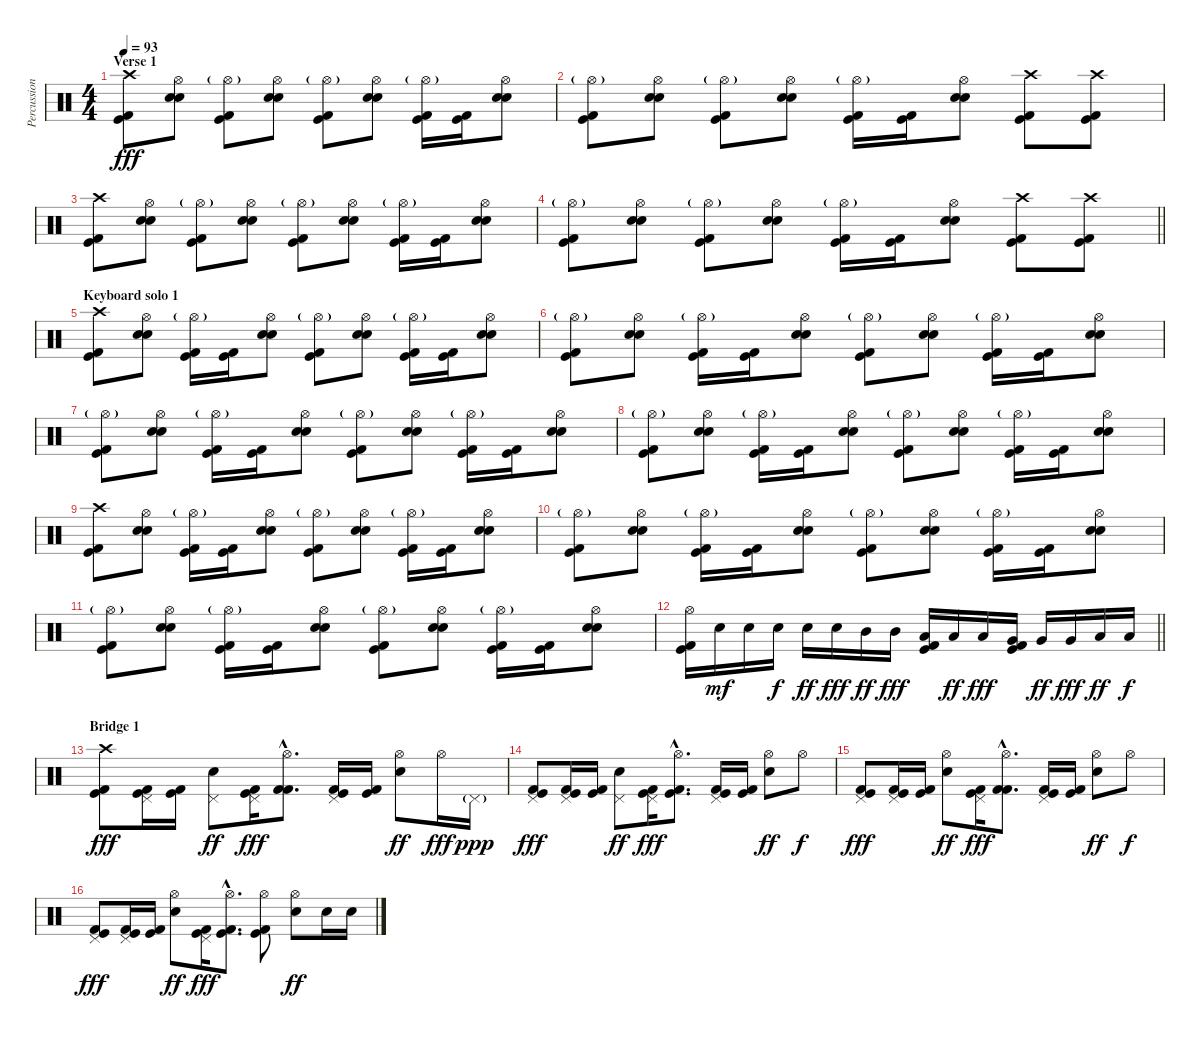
\track ("Percussion" "Percussion") {instrument percussion}
\staff {score}
\articulation defaults
\ts (4 4)
\section ("" "Verse 1")
\tempo 93
\clef neutral
\ks c
("Crash high (hit)" "Kick (hit)" "Kick (hit) 2").8{dy fff} ("Hi-Hat (open)" "Electric Snare (hit)" "Snare (hit) 2").8 ("Hi-Hat (open)"{g} "Kick (hit)" "Kick (hit) 2").8 ("Hi-Hat (open)" "Electric Snare (hit)" "Snare (hit) 2").8 ("Hi-Hat (open)"{g} "Kick (hit)" "Kick (hit) 2").8 ("Hi-Hat (open)" "Electric Snare (hit)" "Snare (hit) 2").8 ("Hi-Hat (open)"{g} "Kick (hit)" "Kick (hit) 2").16 ("Kick (hit)" "Kick (hit) 2").16 ("Hi-Hat (open)" "Electric Snare (hit)" "Snare (hit) 2").8 |
("Hi-Hat (open)"{g} "Kick (hit)" "Kick (hit) 2").8 ("Hi-Hat (open)" "Electric Snare (hit)" "Snare (hit) 2").8 ("Hi-Hat (open)"{g} "Kick (hit)" "Kick (hit) 2").8 ("Hi-Hat (open)" "Electric Snare (hit)" "Snare (hit) 2").8 ("Hi-Hat (open)"{g} "Kick (hit)" "Kick (hit) 2").16 ("Kick (hit)" "Kick (hit) 2").16 ("Hi-Hat (open)" "Electric Snare (hit)" "Snare (hit) 2").8 ("Crash high (hit)" "Kick (hit)" "Kick (hit) 2").8 ("Crash high (hit)" "Kick (hit)" "Kick (hit) 2").8 |
("Crash high (hit)" "Kick (hit)" "Kick (hit) 2").8 ("Hi-Hat (open)" "Electric Snare (hit)" "Snare (hit) 2").8 ("Hi-Hat (open)"{g} "Kick (hit)" "Kick (hit) 2").8 ("Hi-Hat (open)" "Electric Snare (hit)" "Snare (hit) 2").8 ("Hi-Hat (open)"{g} "Kick (hit)" "Kick (hit) 2").8 ("Hi-Hat (open)" "Electric Snare (hit)" "Snare (hit) 2").8 ("Hi-Hat (open)"{g} "Kick (hit)" "Kick (hit) 2").16 ("Kick (hit)" "Kick (hit) 2").16 ("Hi-Hat (open)" "Electric Snare (hit)" "Snare (hit) 2").8 |
\barLineRight lightlight
("Hi-Hat (open)"{g} "Kick (hit)" "Kick (hit) 2").8 ("Hi-Hat (open)" "Electric Snare (hit)" "Snare (hit) 2").8 ("Hi-Hat (open)"{g} "Kick (hit)" "Kick (hit) 2").8 ("Hi-Hat (open)" "Electric Snare (hit)" "Snare (hit) 2").8 ("Hi-Hat (open)"{g} "Kick (hit)" "Kick (hit) 2").16 ("Kick (hit)" "Kick (hit) 2").16 ("Hi-Hat (open)" "Electric Snare (hit)" "Snare (hit) 2").8 ("Crash high (hit)" "Kick (hit)" "Kick (hit) 2").8 ("Crash high (hit)" "Kick (hit)" "Kick (hit) 2").8 |
\section ("" "Keyboard solo 1")
("Crash high (hit)" "Kick (hit)" "Kick (hit) 2").8 ("Hi-Hat (open)" "Electric Snare (hit)" "Snare (hit) 2").8 ("Hi-Hat (open)"{g} "Kick (hit)" "Kick (hit) 2").16 ("Kick (hit)" "Kick (hit) 2").16 ("Hi-Hat (open)" "Electric Snare (hit)" "Snare (hit) 2").8 ("Hi-Hat (open)"{g} "Kick (hit)" "Kick (hit) 2").8 ("Hi-Hat (open)" "Electric Snare (hit)" "Snare (hit) 2").8 ("Hi-Hat (open)"{g} "Kick (hit)" "Kick (hit) 2").16 ("Kick (hit)" "Kick (hit) 2").16 ("Hi-Hat (open)" "Electric Snare (hit)" "Snare (hit) 2").8 |
("Hi-Hat (open)"{g} "Kick (hit)" "Kick (hit) 2").8 ("Hi-Hat (open)" "Electric Snare (hit)" "Snare (hit) 2").8 ("Hi-Hat (open)"{g} "Kick (hit)" "Kick (hit) 2").16 ("Kick (hit)" "Kick (hit) 2").16 ("Hi-Hat (open)" "Electric Snare (hit)" "Snare (hit) 2").8 ("Hi-Hat (open)"{g} "Kick (hit)" "Kick (hit) 2").8 ("Hi-Hat (open)" "Electric Snare (hit)" "Snare (hit) 2").8 ("Hi-Hat (open)"{g} "Kick (hit)" "Kick (hit) 2").16 ("Kick (hit)" "Kick (hit) 2").16 ("Hi-Hat (open)" "Electric Snare (hit)" "Snare (hit) 2").8 |
("Hi-Hat (open)"{g} "Kick (hit)" "Kick (hit) 2").8 ("Hi-Hat (open)" "Electric Snare (hit)" "Snare (hit) 2").8 ("Hi-Hat (open)"{g} "Kick (hit)" "Kick (hit) 2").16 ("Kick (hit)" "Kick (hit) 2").16 ("Hi-Hat (open)" "Electric Snare (hit)" "Snare (hit) 2").8 ("Hi-Hat (open)"{g} "Kick (hit)" "Kick (hit) 2").8 ("Hi-Hat (open)" "Electric Snare (hit)" "Snare (hit) 2").8 ("Hi-Hat (open)"{g} "Kick (hit)" "Kick (hit) 2").16 ("Kick (hit)" "Kick (hit) 2").16 ("Hi-Hat (open)" "Electric Snare (hit)" "Snare (hit) 2").8 |
("Hi-Hat (open)"{g} "Kick (hit)" "Kick (hit) 2").8 ("Hi-Hat (open)" "Electric Snare (hit)" "Snare (hit) 2").8 ("Hi-Hat (open)"{g} "Kick (hit)" "Kick (hit) 2").16 ("Kick (hit)" "Kick (hit) 2").16 ("Hi-Hat (open)" "Electric Snare (hit)" "Snare (hit) 2").8 ("Hi-Hat (open)"{g} "Kick (hit)" "Kick (hit) 2").8 ("Hi-Hat (open)" "Electric Snare (hit)" "Snare (hit) 2").8 ("Hi-Hat (open)"{g} "Kick (hit)" "Kick (hit) 2").16 ("Kick (hit)" "Kick (hit) 2").16 ("Hi-Hat (open)" "Electric Snare (hit)" "Snare (hit) 2").8 |
("Crash high (hit)" "Kick (hit)" "Kick (hit) 2").8 ("Hi-Hat (open)" "Electric Snare (hit)" "Snare (hit) 2").8 ("Hi-Hat (open)"{g} "Kick (hit)" "Kick (hit) 2").16 ("Kick (hit)" "Kick (hit) 2").16 ("Hi-Hat (open)" "Electric Snare (hit)" "Snare (hit) 2").8 ("Hi-Hat (open)"{g} "Kick (hit)" "Kick (hit) 2").8 ("Hi-Hat (open)" "Electric Snare (hit)" "Snare (hit) 2").8 ("Hi-Hat (open)"{g} "Kick (hit)" "Kick (hit) 2").16 ("Kick (hit)" "Kick (hit) 2").16 ("Hi-Hat (open)" "Electric Snare (hit)" "Snare (hit) 2").8 |
("Hi-Hat (open)"{g} "Kick (hit)" "Kick (hit) 2").8 ("Hi-Hat (open)" "Electric Snare (hit)" "Snare (hit) 2").8 ("Hi-Hat (open)"{g} "Kick (hit)" "Kick (hit) 2").16 ("Kick (hit)" "Kick (hit) 2").16 ("Hi-Hat (open)" "Electric Snare (hit)" "Snare (hit) 2").8 ("Hi-Hat (open)"{g} "Kick (hit)" "Kick (hit) 2").8 ("Hi-Hat (open)" "Electric Snare (hit)" "Snare (hit) 2").8 ("Hi-Hat (open)"{g} "Kick (hit)" "Kick (hit) 2").16 ("Kick (hit)" "Kick (hit) 2").16 ("Hi-Hat (open)" "Electric Snare (hit)" "Snare (hit) 2").8 |
("Hi-Hat (open)"{g} "Kick (hit)" "Kick (hit) 2").8 ("Hi-Hat (open)" "Electric Snare (hit)" "Snare (hit) 2").8 ("Hi-Hat (open)"{g} "Kick (hit)" "Kick (hit) 2").16 ("Kick (hit)" "Kick (hit) 2").16 ("Hi-Hat (open)" "Electric Snare (hit)" "Snare (hit) 2").8 ("Hi-Hat (open)"{g} "Kick (hit)" "Kick (hit) 2").8 ("Hi-Hat (open)" "Electric Snare (hit)" "Snare (hit) 2").8 ("Hi-Hat (open)"{g} "Kick (hit)" "Kick (hit) 2").16 ("Kick (hit)" "Kick (hit) 2").16 ("Hi-Hat (open)" "Electric Snare (hit)" "Snare (hit) 2").8 |
\barLineRight lightlight
("Hi-Hat (open)" "Kick (hit)" "Kick (hit) 2").16 "Snare (hit) 2".16{dy mf} "Snare (hit) 2".16 "Snare (hit) 2".16{dy f} "Snare (hit) 2".16{dy ff} "Snare (hit) 2".16{dy fff} "Mid Tom (hit)".16{dy ff balance 14} "Mid Tom (hit)".16{dy fff} ("Low Tom (hit)" "Kick (hit)" "Kick (hit) 2").16{balance 12} "Low Tom (hit)".16{dy ff} "Low Tom (hit)".16{dy fff} ("Very Low Tom (hit)" "Kick (hit)" "Kick (hit) 2").16{balance 10} "Very Low Tom (hit)".16{dy ff} "Very Low Tom (hit)".16{dy fff} "Low Floor Tom (hit)".16{dy ff balance 6} "Low Floor Tom (hit)".16{dy f} |
\section ("" "Bridge 1")
("Crash high (hit)" "Kick (hit)" "Kick (hit) 2").8{dy fff balance 8} ("Pedal Hi-Hat (hit)" "Kick (hit)" "Kick (hit) 2").16 ("Kick (hit)" "Kick (hit) 2").16 ("Pedal Hi-Hat (hit)" "Snare (hit) 2").8{dy ff} ("Pedal Hi-Hat (hit)" "Kick (hit)" "Kick (hit) 2").16{dy fff} ("Hi-Hat (open)"{hac} "Kick (hit) 2"{hac} "Kick (hit) 2"{hac}).8{d} ("Pedal Hi-Hat (hit)" "Kick (hit)" "Kick (hit) 2").16 ("Kick (hit)" "Kick (hit) 2").16 ("Hi-Hat (open)" "Snare (hit) 2").8{dy ff} "Hi-Hat (open)".16{dy fff} "Pedal Hi-Hat (hit)"{g}.16{dy ppp} |
("Pedal Hi-Hat (hit)" "Kick (hit)" "Kick (hit) 2").8{dy fff} ("Pedal Hi-Hat (hit)" "Kick (hit)" "Kick (hit) 2").16 ("Kick (hit)" "Kick (hit) 2").16 ("Pedal Hi-Hat (hit)" "Snare (hit) 2").8{dy ff} ("Pedal Hi-Hat (hit)" "Kick (hit)" "Kick (hit) 2").16{dy fff} ("Hi-Hat (open)"{hac} "Kick (hit)"{hac} "Kick (hit) 2"{hac}).8{d} ("Pedal Hi-Hat (hit)" "Kick (hit)" "Kick (hit) 2").16 ("Kick (hit)" "Kick (hit) 2").16 ("Hi-Hat (open)" "Snare (hit) 2").8{dy ff} "Hi-Hat (open)".8{dy f} |
("Pedal Hi-Hat (hit)" "Kick (hit)" "Kick (hit) 2").8{dy fff} ("Pedal Hi-Hat (hit)" "Kick (hit)" "Kick (hit) 2").16 ("Kick (hit)" "Kick (hit) 2").16 ("Hi-Hat (open)" "Snare (hit) 2").8{dy ff} ("Pedal Hi-Hat (hit)" "Kick (hit)" "Kick (hit) 2").16{dy fff} ("Hi-Hat (open)"{hac} "Kick (hit) 2"{hac} "Kick (hit) 2"{hac}).8{d} ("Pedal Hi-Hat (hit)" "Kick (hit)" "Kick (hit) 2").16 ("Kick (hit)" "Kick (hit) 2").16 ("Hi-Hat (open)" "Snare (hit) 2").8{dy ff} "Hi-Hat (open)".8{dy f} |
("Pedal Hi-Hat (hit)" "Kick (hit)" "Kick (hit) 2").8{dy fff} ("Pedal Hi-Hat (hit)" "Kick (hit)" "Kick (hit) 2").16 ("Kick (hit)" "Kick (hit) 2").16 ("Hi-Hat (open)" "Snare (hit) 2").8{dy ff} ("Pedal Hi-Hat (hit)" "Kick (hit)" "Kick (hit) 2").16{dy fff} ("Hi-Hat (open)"{hac} "Kick (hit)"{hac} "Kick (hit) 2"{hac}).8{d} ("Hi-Hat (open)" "Kick (hit)" "Kick (hit) 2").8 ("Hi-Hat (open)" "Snare (hit) 2").8{dy ff} "Snare (hit) 2".16 "Snare (hit) 2".16
